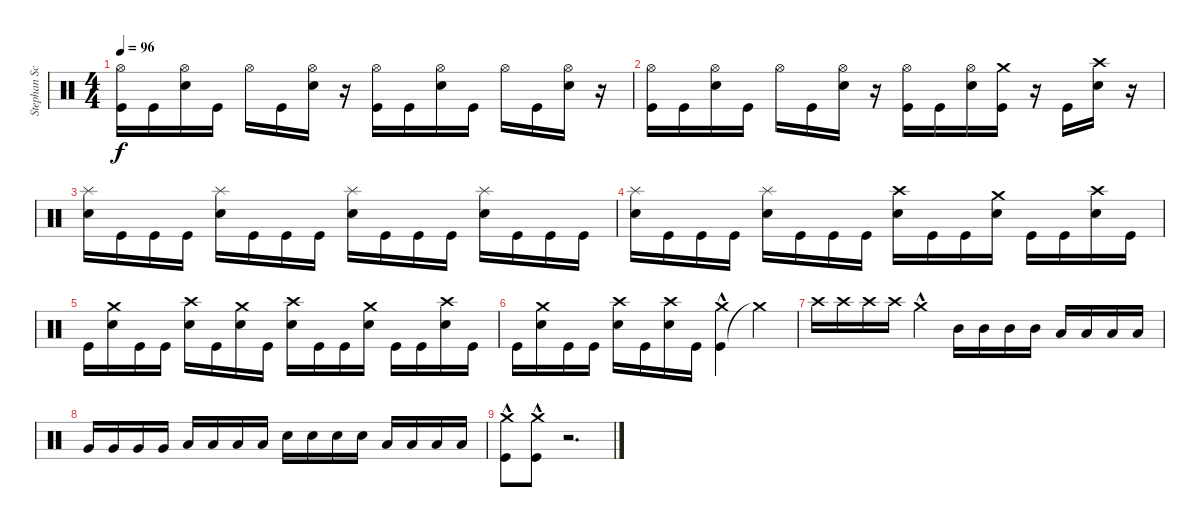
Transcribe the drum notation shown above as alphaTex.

\track ("Stephan Schwarzmann" "Stephan Sc") {instrument percussion}
\staff {score}
\articulation defaults
\ts (4 4)
\tempo 96
\clef neutral
\ks c
("Kick (hit)" "Hi-Hat (open)").16{dy f} "Kick (hit)".16 ("Snare (hit) 2" "Hi-Hat (open)").16 "Kick (hit)".16 "Hi-Hat (open)".16 "Kick (hit)".16 ("Hi-Hat (open)" "Snare (hit) 2").16 r.16 ("Hi-Hat (open)" "Kick (hit)").16 "Kick (hit)".16 ("Snare (hit) 2" "Hi-Hat (open)").16 "Kick (hit)".16 "Hi-Hat (open)".16 "Kick (hit)".16 ("Hi-Hat (open)" "Snare (hit) 2").16 r.16 |
("Kick (hit)" "Hi-Hat (open)").16 "Kick (hit)".16 ("Snare (hit) 2" "Hi-Hat (open)").16 "Kick (hit)".16 "Hi-Hat (open)".16 "Kick (hit)".16 ("Hi-Hat (open)" "Snare (hit) 2").16 r.16 ("Hi-Hat (open)" "Kick (hit)").16 "Kick (hit)".16 ("Snare (hit) 2" "Hi-Hat (open)").16 ("Kick (hit)" "Crash medium (hit)").16 r.16 "Kick (hit)".16 ("Snare (hit) 2" "Crash high (hit)").16 r.16 |
("Snare (hit) 2" "Splash (hit)").16 "Kick (hit)".16 "Kick (hit)".16 "Kick (hit)".16 ("Snare (hit) 2" "Splash (hit)").16 "Kick (hit)".16 "Kick (hit)".16 "Kick (hit)".16 ("Snare (hit) 2" "Splash (hit)").16 "Kick (hit)".16 "Kick (hit)".16 "Kick (hit)".16 ("Snare (hit) 2" "Splash (hit)").16 "Kick (hit)".16 "Kick (hit)".16 "Kick (hit)".16 |
("Snare (hit) 2" "Splash (hit)").16 "Kick (hit)".16 "Kick (hit)".16 "Kick (hit)".16 ("Snare (hit) 2" "Splash (hit)").16 "Kick (hit)".16 "Kick (hit)".16 "Kick (hit)".16 ("Snare (hit) 2" "Crash high (hit)").16 "Kick (hit)".16 "Kick (hit)".16 ("Crash medium (hit)" "Snare (hit) 2").16 "Kick (hit)".16 "Kick (hit)".16 ("Snare (hit) 2" "Crash high (hit)").16 "Kick (hit)".16 |
"Kick (hit)".16 ("Snare (hit) 2" "Crash medium (hit)").16 "Kick (hit)".16 "Kick (hit)".16 ("Snare (hit) 2" "Crash high (hit)").16 "Kick (hit)".16 ("Snare (hit) 2" "Crash medium (hit)").16 "Kick (hit)".16 ("Snare (hit) 2" "Crash high (hit)").16 "Kick (hit)".16 "Kick (hit)".16 ("Snare (hit) 2" "Crash medium (hit)").16 "Kick (hit)".16 "Kick (hit)".16 ("Snare (hit) 2" "Crash high (hit)").16 "Kick (hit)".16 |
"Kick (hit)".16 ("Snare (hit) 2" "Crash medium (hit)").16 "Kick (hit)".16 "Kick (hit)".16 ("Snare (hit) 2" "Crash high (hit)").16 "Kick (hit)".16 ("Snare (hit) 2" "Crash high (hit)").16 "Kick (hit)".16 ("Kick (hit)"{hac} "Crash medium (hit)"{hac}).4 "Crash medium (hit)"{t}.4 |
"Crash high (hit)".16 "Crash high (hit)".16 "Crash high (hit)".16 "Crash high (hit)".16 "Crash medium (hit)"{hac}.4 "Mid Tom (hit)".16 "Mid Tom (hit)".16 "Mid Tom (hit)".16 "Mid Tom (hit)".16 "Low Tom (hit)".16 "Low Tom (hit)".16 "Low Tom (hit)".16 "Low Tom (hit)".16 |
"Very Low Tom (hit)".16 "Very Low Tom (hit)".16 "Very Low Tom (hit)".16 "Very Low Tom (hit)".16 "Low Floor Tom (hit)".16 "Low Floor Tom (hit)".16 "Low Floor Tom (hit)".16 "Low Floor Tom (hit)".16 "Snare (hit) 2".16 "Snare (hit) 2".16 "Snare (hit) 2".16 "Snare (hit) 2".16 "Low Tom (hit)".16 "Low Tom (hit)".16 "Low Floor Tom (hit)".16 "Low Floor Tom (hit)".16 |
("Kick (hit)"{hac} "Crash medium (hit)"{hac}).8 ("Kick (hit)"{hac} "Crash medium (hit)"{hac}).8 r.2{d}
